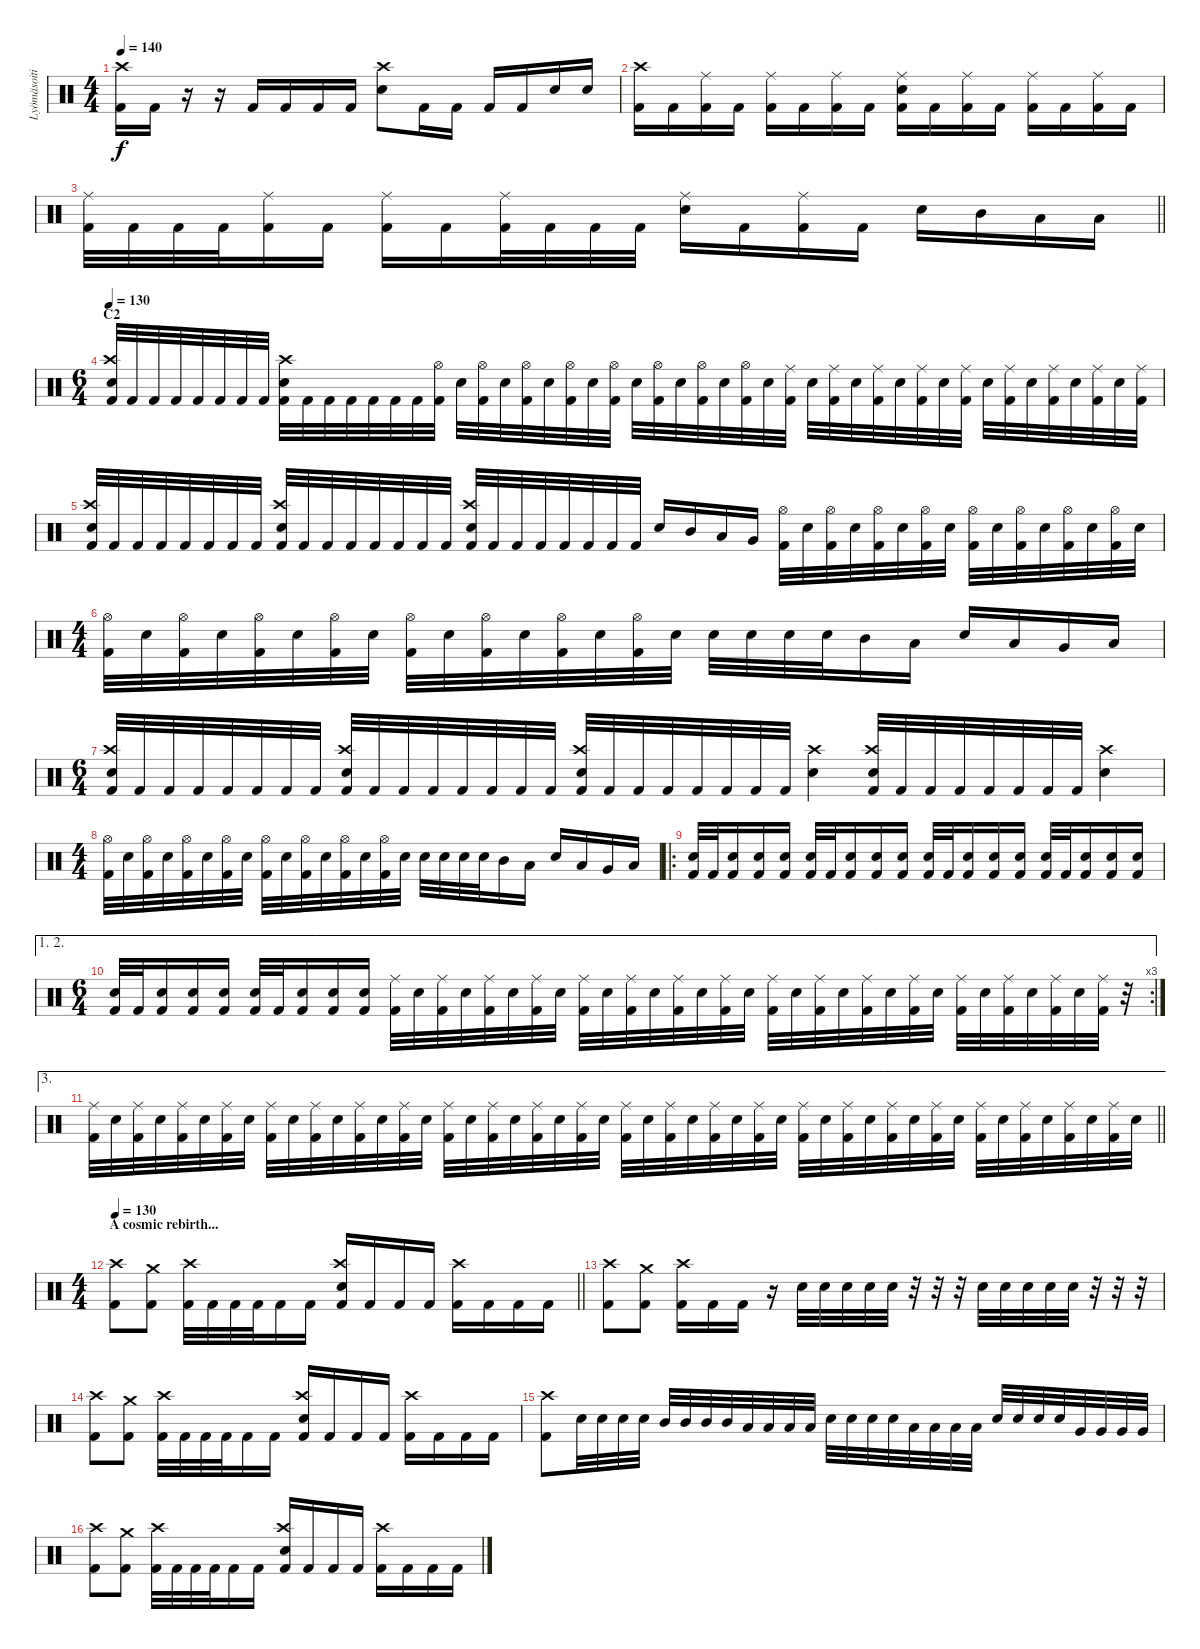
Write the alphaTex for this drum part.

\track ("Lyömäsoitin" "Lyömäsoiti") {instrument percussion}
\staff {score}
\articulation defaults
\ts (4 4)
\tempo 140
\clef neutral
\ks c
("Kick (hit) 2" "Crash high (hit)").16{dy f} "Kick (hit) 2".16 r.16 r.16 "Kick (hit) 2".16 "Kick (hit) 2".16 "Kick (hit) 2".16 "Kick (hit) 2".16 ("Snare (hit) 2" "Crash high (hit)").8 "Kick (hit) 2".16 "Kick (hit) 2".16 "Kick (hit) 2".16 "Kick (hit) 2".16 "Snare (hit) 2".16 "Snare (hit) 2".16 |
("Crash high (hit)" "Kick (hit) 2").16 "Kick (hit) 2".16 ("Kick (hit) 2" "Ride (middle)").16 "Kick (hit) 2".16 ("Kick (hit) 2" "Ride (middle)").16 "Kick (hit) 2".16 ("Kick (hit) 2" "Ride (middle)").16 "Kick (hit) 2".16 ("Kick (hit) 2" "Ride (middle)" "Electric Snare (hit)").16 "Kick (hit) 2".16 ("Kick (hit) 2" "Ride (middle)").16 "Kick (hit) 2".16 ("Kick (hit) 2" "Ride (middle)").16 "Kick (hit) 2".16 ("Kick (hit) 2" "Ride (middle)").16 "Kick (hit) 2".16 |
\barLineRight lightlight
("Kick (hit) 2" "Ride (middle)").32 "Kick (hit) 2".32 "Kick (hit) 2".32 "Kick (hit) 2".32 ("Kick (hit) 2" "Ride (middle)").16 "Kick (hit) 2".16 ("Kick (hit) 2" "Ride (middle)").16 "Kick (hit) 2".16 ("Kick (hit) 2" "Ride (middle)").32 "Kick (hit) 2".32 "Kick (hit) 2".32 "Kick (hit) 2".32 ("Snare (hit) 2" "Ride (middle)").16 "Kick (hit) 2".16 ("Kick (hit) 2" "Ride (middle)").16 "Kick (hit) 2".16 "Snare (hit) 2".16 "Mid Tom (hit)".16 "Low Tom (hit)".16 "Low Floor Tom (hit)".16 |
\ts (6 4)
\section ("" "C2")
\tempo 130
("Kick (hit) 2" "Crash high (hit)" "Electric Snare (hit)").32 "Kick (hit) 2".32 "Kick (hit) 2".32 "Kick (hit) 2".32 "Kick (hit) 2".32 "Kick (hit) 2".32 "Kick (hit) 2".32 "Kick (hit) 2".32 ("Kick (hit) 2" "Electric Snare (hit)" "Crash high (hit)").32 "Kick (hit) 2".32 "Kick (hit) 2".32 "Kick (hit) 2".32 "Kick (hit) 2".32 "Kick (hit) 2".32 "Kick (hit) 2".32 ("Hi-Hat (open)" "Kick (hit) 2").32 "Electric Snare (hit)".32 ("Hi-Hat (open)" "Kick (hit) 2").32 "Electric Snare (hit)".32 ("Hi-Hat (open)" "Kick (hit) 2").32 "Electric Snare (hit)".32 ("Hi-Hat (open)" "Kick (hit) 2").32 "Electric Snare (hit)".32 ("Hi-Hat (open)" "Kick (hit) 2").32 "Electric Snare (hit)".32 ("Hi-Hat (open)" "Kick (hit) 2").32 "Electric Snare (hit)".32 ("Hi-Hat (open)" "Kick (hit) 2").32 "Electric Snare (hit)".32 ("Hi-Hat (open)" "Kick (hit) 2").32 "Electric Snare (hit)".32 ("Ride (middle)" "Kick (hit) 2").32 "Electric Snare (hit)".32 ("Ride (middle)" "Kick (hit) 2").32 "Electric Snare (hit)".32 ("Ride (middle)" "Kick (hit) 2").32 "Electric Snare (hit)".32 ("Ride (middle)" "Kick (hit) 2").32 "Electric Snare (hit)".32 ("Ride (middle)" "Kick (hit) 2").32 "Electric Snare (hit)".32 ("Ride (middle)" "Kick (hit) 2").32 "Electric Snare (hit)".32 ("Ride (middle)" "Kick (hit) 2").32 "Electric Snare (hit)".32 ("Ride (middle)" "Kick (hit) 2").32 "Electric Snare (hit)".32 ("Ride (middle)" "Kick (hit) 2").32 |
("Kick (hit) 2" "Crash high (hit)" "Electric Snare (hit)").32 "Kick (hit) 2".32 "Kick (hit) 2".32 "Kick (hit) 2".32 "Kick (hit) 2".32 "Kick (hit) 2".32 "Kick (hit) 2".32 "Kick (hit) 2".32 ("Kick (hit) 2" "Electric Snare (hit)" "Crash high (hit)").32 "Kick (hit) 2".32 "Kick (hit) 2".32 "Kick (hit) 2".32 "Kick (hit) 2".32 "Kick (hit) 2".32 "Kick (hit) 2".32 "Kick (hit) 2".32 ("Kick (hit) 2" "Electric Snare (hit)" "Crash high (hit)").32 "Kick (hit) 2".32 "Kick (hit) 2".32 "Kick (hit) 2".32 "Kick (hit) 2".32 "Kick (hit) 2".32 "Kick (hit) 2".32 "Kick (hit) 2".32 "Electric Snare (hit)".16 "Mid Tom (hit)".16 "Low Tom (hit)".16 "Very Low Tom (hit)".16 ("Hi-Hat (open)" "Kick (hit) 2").32 "Electric Snare (hit)".32 ("Hi-Hat (open)" "Kick (hit) 2").32 "Electric Snare (hit)".32 ("Hi-Hat (open)" "Kick (hit) 2").32 "Electric Snare (hit)".32 ("Hi-Hat (open)" "Kick (hit) 2").32 "Electric Snare (hit)".32 ("Hi-Hat (open)" "Kick (hit) 2").32 "Electric Snare (hit)".32 ("Hi-Hat (open)" "Kick (hit) 2").32 "Electric Snare (hit)".32 ("Hi-Hat (open)" "Kick (hit) 2").32 "Electric Snare (hit)".32 ("Hi-Hat (open)" "Kick (hit) 2").32 "Electric Snare (hit)".32 |
\ts (4 4)
("Hi-Hat (open)" "Kick (hit) 2").32 "Electric Snare (hit)".32 ("Hi-Hat (open)" "Kick (hit) 2").32 "Electric Snare (hit)".32 ("Hi-Hat (open)" "Kick (hit) 2").32 "Electric Snare (hit)".32 ("Hi-Hat (open)" "Kick (hit) 2").32 "Electric Snare (hit)".32 ("Hi-Hat (open)" "Kick (hit) 2").32 "Electric Snare (hit)".32 ("Hi-Hat (open)" "Kick (hit) 2").32 "Electric Snare (hit)".32 ("Hi-Hat (open)" "Kick (hit) 2").32 "Electric Snare (hit)".32 ("Hi-Hat (open)" "Kick (hit) 2").32 "Electric Snare (hit)".32 "Electric Snare (hit)".32 "Electric Snare (hit)".32 "Electric Snare (hit)".32 "Electric Snare (hit)".32 "Mid Tom (hit)".16 "Low Tom (hit)".16 "Electric Snare (hit)".16 "Low Tom (hit)".16 "Very Low Tom (hit)".16 "Low Floor Tom (hit)".16 |
\ts (6 4)
("Kick (hit) 2" "Crash high (hit)" "Electric Snare (hit)").32 "Kick (hit) 2".32 "Kick (hit) 2".32 "Kick (hit) 2".32 "Kick (hit) 2".32 "Kick (hit) 2".32 "Kick (hit) 2".32 "Kick (hit) 2".32 ("Kick (hit) 2" "Electric Snare (hit)" "Crash high (hit)").32 "Kick (hit) 2".32 "Kick (hit) 2".32 "Kick (hit) 2".32 "Kick (hit) 2".32 "Kick (hit) 2".32 "Kick (hit) 2".32 "Kick (hit) 2".32 ("Kick (hit) 2" "Electric Snare (hit)" "Crash high (hit)").32 "Kick (hit) 2".32 "Kick (hit) 2".32 "Kick (hit) 2".32 "Kick (hit) 2".32 "Kick (hit) 2".32 "Kick (hit) 2".32 "Kick (hit) 2".32 ("Electric Snare (hit)" "Crash high (hit)").4 ("Kick (hit) 2" "Electric Snare (hit)" "Crash high (hit)").32 "Kick (hit) 2".32 "Kick (hit) 2".32 "Kick (hit) 2".32 "Kick (hit) 2".32 "Kick (hit) 2".32 "Kick (hit) 2".32 "Kick (hit) 2".32 ("Electric Snare (hit)" "Crash high (hit)").4 |
\ts (4 4)
("Hi-Hat (open)" "Kick (hit) 2").32 "Electric Snare (hit)".32 ("Hi-Hat (open)" "Kick (hit) 2").32 "Electric Snare (hit)".32 ("Hi-Hat (open)" "Kick (hit) 2").32 "Electric Snare (hit)".32 ("Hi-Hat (open)" "Kick (hit) 2").32 "Electric Snare (hit)".32 ("Hi-Hat (open)" "Kick (hit) 2").32 "Electric Snare (hit)".32 ("Hi-Hat (open)" "Kick (hit) 2").32 "Electric Snare (hit)".32 ("Hi-Hat (open)" "Kick (hit) 2").32 "Electric Snare (hit)".32 ("Hi-Hat (open)" "Kick (hit) 2").32 "Electric Snare (hit)".32 "Electric Snare (hit)".32 "Electric Snare (hit)".32 "Electric Snare (hit)".32 "Electric Snare (hit)".32 "Mid Tom (hit)".16 "Low Tom (hit)".16 "Electric Snare (hit)".16 "Low Tom (hit)".16 "Very Low Tom (hit)".16 "Low Floor Tom (hit)".16 |
\ro
("Kick (hit) 2" "Electric Snare (hit)").32 "Kick (hit) 2".32 ("Kick (hit) 2" "Electric Snare (hit)").16 ("Kick (hit) 2" "Electric Snare (hit)").16 ("Kick (hit) 2" "Electric Snare (hit)").16 ("Kick (hit) 2" "Electric Snare (hit)").32 "Kick (hit) 2".32 ("Kick (hit) 2" "Electric Snare (hit)").16 ("Kick (hit) 2" "Electric Snare (hit)").16 ("Kick (hit) 2" "Electric Snare (hit)").16 ("Kick (hit) 2" "Electric Snare (hit)").32 "Kick (hit) 2".32 ("Kick (hit) 2" "Electric Snare (hit)").16 ("Kick (hit) 2" "Electric Snare (hit)").16 ("Kick (hit) 2" "Electric Snare (hit)").16 ("Kick (hit) 2" "Electric Snare (hit)").32 "Kick (hit) 2".32 ("Kick (hit) 2" "Electric Snare (hit)").16 ("Kick (hit) 2" "Electric Snare (hit)").16 ("Kick (hit) 2" "Electric Snare (hit)").16 |
\ae (1 2)
\rc 3
\ts (6 4)
("Kick (hit) 2" "Electric Snare (hit)").32 "Kick (hit) 2".32 ("Kick (hit) 2" "Electric Snare (hit)").16 ("Kick (hit) 2" "Electric Snare (hit)").16 ("Kick (hit) 2" "Electric Snare (hit)").16 ("Kick (hit) 2" "Electric Snare (hit)").32 "Kick (hit) 2".32 ("Kick (hit) 2" "Electric Snare (hit)").16 ("Kick (hit) 2" "Electric Snare (hit)").16 ("Kick (hit) 2" "Electric Snare (hit)").16 ("Ride (middle)" "Kick (hit) 2").32 "Electric Snare (hit)".32 ("Ride (middle)" "Kick (hit) 2").32 "Electric Snare (hit)".32 ("Ride (middle)" "Kick (hit) 2").32 "Electric Snare (hit)".32 ("Ride (middle)" "Kick (hit) 2").32 "Electric Snare (hit)".32 ("Ride (middle)" "Kick (hit) 2").32 "Electric Snare (hit)".32 ("Ride (middle)" "Kick (hit) 2").32 "Electric Snare (hit)".32 ("Ride (middle)" "Kick (hit) 2").32 "Electric Snare (hit)".32 ("Ride (middle)" "Kick (hit) 2").32 "Electric Snare (hit)".32 ("Ride (middle)" "Kick (hit) 2").32 "Electric Snare (hit)".32 ("Ride (middle)" "Kick (hit) 2").32 "Electric Snare (hit)".32 ("Ride (middle)" "Kick (hit) 2").32 "Electric Snare (hit)".32 ("Ride (middle)" "Kick (hit) 2").32 "Electric Snare (hit)".32 ("Ride (middle)" "Kick (hit) 2").32 "Electric Snare (hit)".32 ("Ride (middle)" "Kick (hit) 2").32 "Electric Snare (hit)".32 ("Ride (middle)" "Kick (hit) 2").32 "Electric Snare (hit)".32 ("Ride (middle)" "Kick (hit) 2").32 r.32 |
\ae 3
\barLineRight lightlight
("Ride (middle)" "Kick (hit) 2").32 "Electric Snare (hit)".32 ("Ride (middle)" "Kick (hit) 2").32 "Electric Snare (hit)".32 ("Ride (middle)" "Kick (hit) 2").32 "Electric Snare (hit)".32 ("Ride (middle)" "Kick (hit) 2").32 "Electric Snare (hit)".32 ("Ride (middle)" "Kick (hit) 2").32 "Electric Snare (hit)".32 ("Ride (middle)" "Kick (hit) 2").32 "Electric Snare (hit)".32 ("Ride (middle)" "Kick (hit) 2").32 "Electric Snare (hit)".32 ("Ride (middle)" "Kick (hit) 2").32 "Electric Snare (hit)".32 ("Ride (middle)" "Kick (hit) 2").32 "Electric Snare (hit)".32 ("Ride (middle)" "Kick (hit) 2").32 "Electric Snare (hit)".32 ("Ride (middle)" "Kick (hit) 2").32 "Electric Snare (hit)".32 ("Ride (middle)" "Kick (hit) 2").32 "Electric Snare (hit)".32 ("Ride (middle)" "Kick (hit) 2").32 "Electric Snare (hit)".32 ("Ride (middle)" "Kick (hit) 2").32 "Electric Snare (hit)".32 ("Ride (middle)" "Kick (hit) 2").32 "Electric Snare (hit)".32 ("Ride (middle)" "Kick (hit) 2").32 "Electric Snare (hit)".32 ("Ride (middle)" "Kick (hit) 2").32 "Electric Snare (hit)".32 ("Ride (middle)" "Kick (hit) 2").32 "Electric Snare (hit)".32 ("Ride (middle)" "Kick (hit) 2").32 "Electric Snare (hit)".32 ("Ride (middle)" "Kick (hit) 2").32 "Electric Snare (hit)".32 ("Ride (middle)" "Kick (hit) 2").32 "Electric Snare (hit)".32 ("Ride (middle)" "Kick (hit) 2").32 "Electric Snare (hit)".32 ("Ride (middle)" "Kick (hit) 2").32 "Electric Snare (hit)".32 ("Ride (middle)" "Kick (hit) 2").32 "Electric Snare (hit)".32 |
\ts (4 4)
\section ("" "A cosmic rebirth...")
\tempo 130
\barLineRight lightlight
("Kick (hit) 2" "Crash high (hit)").8 ("Kick (hit) 2" "Crash medium (hit)").8 ("Kick (hit) 2" "Crash high (hit)").32 "Kick (hit) 2".32 "Kick (hit) 2".32 "Kick (hit) 2".32 "Kick (hit) 2".16 "Kick (hit) 2".16 ("Electric Snare (hit)" "Kick (hit) 2" "Crash high (hit)").16 "Kick (hit) 2".16 "Kick (hit) 2".16 "Kick (hit) 2".16 ("Kick (hit) 2" "Crash high (hit)").16 "Kick (hit) 2".16 "Kick (hit) 2".16 "Kick (hit) 2".16 |
("Kick (hit) 2" "Crash high (hit)").8 ("Kick (hit) 2" "Crash medium (hit)").8 ("Kick (hit) 2" "Crash high (hit)").16 "Kick (hit) 2".16 "Kick (hit) 2".16 r.16 "Electric Snare (hit)".32 "Electric Snare (hit)".32 "Electric Snare (hit)".32 "Electric Snare (hit)".32 "Electric Snare (hit)".32 r.32 r.32 r.32 "Electric Snare (hit)".32 "Electric Snare (hit)".32 "Electric Snare (hit)".32 "Electric Snare (hit)".32 "Electric Snare (hit)".32 r.32 r.32 r.32 |
("Kick (hit) 2" "Crash high (hit)").8 ("Kick (hit) 2" "Crash medium (hit)").8 ("Kick (hit) 2" "Crash high (hit)").32 "Kick (hit) 2".32 "Kick (hit) 2".32 "Kick (hit) 2".32 "Kick (hit) 2".16 "Kick (hit) 2".16 ("Electric Snare (hit)" "Kick (hit) 2" "Crash high (hit)").16 "Kick (hit) 2".16 "Kick (hit) 2".16 "Kick (hit) 2".16 ("Kick (hit) 2" "Crash high (hit)").16 "Kick (hit) 2".16 "Kick (hit) 2".16 "Kick (hit) 2".16 |
("Kick (hit) 2" "Crash high (hit)").8 "Electric Snare (hit)".32 "Electric Snare (hit)".32 "Electric Snare (hit)".32 "Electric Snare (hit)".32 "Mid Tom (hit)".32 "Mid Tom (hit)".32 "Mid Tom (hit)".32 "Mid Tom (hit)".32 "Low Tom (hit)".32 "Low Tom (hit)".32 "Low Tom (hit)".32 "Low Tom (hit)".32 "Electric Snare (hit)".32 "Electric Snare (hit)".32 "Electric Snare (hit)".32 "Electric Snare (hit)".32 "Low Tom (hit)".32 "Low Tom (hit)".32 "Low Tom (hit)".32 "Low Tom (hit)".32 "Electric Snare (hit)".32 "Electric Snare (hit)".32 "Electric Snare (hit)".32 "Electric Snare (hit)".32 "Very Low Tom (hit)".32 "Very Low Tom (hit)".32 "Very Low Tom (hit)".32 "Very Low Tom (hit)".32 |
("Kick (hit) 2" "Crash high (hit)").8 ("Kick (hit) 2" "Crash medium (hit)").8 ("Kick (hit) 2" "Crash high (hit)").32 "Kick (hit) 2".32 "Kick (hit) 2".32 "Kick (hit) 2".32 "Kick (hit) 2".16 "Kick (hit) 2".16 ("Electric Snare (hit)" "Kick (hit) 2" "Crash high (hit)").16 "Kick (hit) 2".16 "Kick (hit) 2".16 "Kick (hit) 2".16 ("Kick (hit) 2" "Crash high (hit)").16 "Kick (hit) 2".16 "Kick (hit) 2".16 "Kick (hit) 2".16
